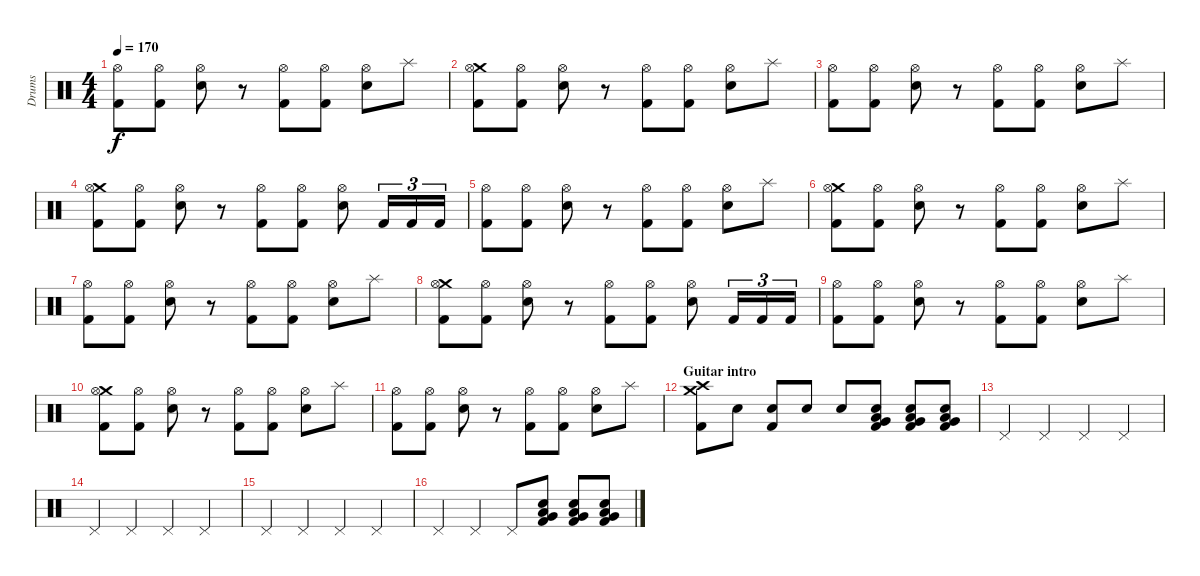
\track ("Drums" "Drums") {instrument percussion}
\staff {score}
\articulation defaults
\ts (4 4)
\tempo 170
\clef neutral
\ks c
("Hi-Hat (open)" "Kick (hit) 2").8{dy f} ("Hi-Hat (open)" "Kick (hit) 2").8 ("Hi-Hat (open)" "Snare (hit) 2").8 r.8 ("Hi-Hat (open)" "Kick (hit) 2").8 ("Hi-Hat (open)" "Kick (hit) 2").8 ("Hi-Hat (open)" "Snare (hit) 2").8 "Splash (hit)".8 |
("Crash medium (hit)" "Hi-Hat (open)" "Kick (hit) 2").8 ("Hi-Hat (open)" "Kick (hit) 2").8 ("Hi-Hat (open)" "Snare (hit) 2").8 r.8 ("Hi-Hat (open)" "Kick (hit) 2").8 ("Hi-Hat (open)" "Kick (hit) 2").8 ("Hi-Hat (open)" "Snare (hit) 2").8 "Splash (hit)".8 |
("Hi-Hat (open)" "Kick (hit) 2").8 ("Hi-Hat (open)" "Kick (hit) 2").8 ("Hi-Hat (open)" "Snare (hit) 2").8 r.8 ("Hi-Hat (open)" "Kick (hit) 2").8 ("Hi-Hat (open)" "Kick (hit) 2").8 ("Hi-Hat (open)" "Snare (hit) 2").8 "Splash (hit)".8 |
("Crash medium (hit)" "Hi-Hat (open)" "Kick (hit) 2").8 ("Hi-Hat (open)" "Kick (hit) 2").8 ("Hi-Hat (open)" "Snare (hit) 2").8 r.8 ("Hi-Hat (open)" "Kick (hit) 2").8 ("Hi-Hat (open)" "Kick (hit) 2").8 ("Hi-Hat (open)" "Snare (hit) 2").8 "Kick (hit) 2".16{tu (3 2)} "Kick (hit) 2".16{tu (3 2)} "Kick (hit) 2".16{tu (3 2)} |
("Hi-Hat (open)" "Kick (hit) 2").8 ("Hi-Hat (open)" "Kick (hit) 2").8 ("Hi-Hat (open)" "Snare (hit) 2").8 r.8 ("Hi-Hat (open)" "Kick (hit) 2").8 ("Hi-Hat (open)" "Kick (hit) 2").8 ("Hi-Hat (open)" "Snare (hit) 2").8 "Splash (hit)".8 |
("Crash medium (hit)" "Hi-Hat (open)" "Kick (hit) 2").8 ("Hi-Hat (open)" "Kick (hit) 2").8 ("Hi-Hat (open)" "Snare (hit) 2").8 r.8 ("Hi-Hat (open)" "Kick (hit) 2").8 ("Hi-Hat (open)" "Kick (hit) 2").8 ("Hi-Hat (open)" "Snare (hit) 2").8 "Splash (hit)".8 |
("Hi-Hat (open)" "Kick (hit) 2").8 ("Hi-Hat (open)" "Kick (hit) 2").8 ("Hi-Hat (open)" "Snare (hit) 2").8 r.8 ("Hi-Hat (open)" "Kick (hit) 2").8 ("Hi-Hat (open)" "Kick (hit) 2").8 ("Hi-Hat (open)" "Snare (hit) 2").8 "Splash (hit)".8 |
("Crash medium (hit)" "Hi-Hat (open)" "Kick (hit) 2").8 ("Hi-Hat (open)" "Kick (hit) 2").8 ("Hi-Hat (open)" "Snare (hit) 2").8 r.8 ("Hi-Hat (open)" "Kick (hit) 2").8 ("Hi-Hat (open)" "Kick (hit) 2").8 ("Hi-Hat (open)" "Snare (hit) 2").8 "Kick (hit) 2".16{tu (3 2)} "Kick (hit) 2".16{tu (3 2)} "Kick (hit) 2".16{tu (3 2)} |
("Hi-Hat (open)" "Kick (hit) 2").8 ("Hi-Hat (open)" "Kick (hit) 2").8 ("Hi-Hat (open)" "Snare (hit) 2").8 r.8 ("Hi-Hat (open)" "Kick (hit) 2").8 ("Hi-Hat (open)" "Kick (hit) 2").8 ("Hi-Hat (open)" "Snare (hit) 2").8 "Splash (hit)".8 |
("Crash medium (hit)" "Hi-Hat (open)" "Kick (hit) 2").8 ("Hi-Hat (open)" "Kick (hit) 2").8 ("Hi-Hat (open)" "Snare (hit) 2").8 r.8 ("Hi-Hat (open)" "Kick (hit) 2").8 ("Hi-Hat (open)" "Kick (hit) 2").8 ("Hi-Hat (open)" "Snare (hit) 2").8 "Splash (hit)".8 |
("Hi-Hat (open)" "Kick (hit) 2").8 ("Hi-Hat (open)" "Kick (hit) 2").8 ("Hi-Hat (open)" "Snare (hit) 2").8 r.8 ("Hi-Hat (open)" "Kick (hit) 2").8 ("Hi-Hat (open)" "Kick (hit) 2").8 ("Hi-Hat (open)" "Snare (hit) 2").8 "Splash (hit)".8 |
\section ("" "Guitar intro")
("Crash medium (hit)" "Crash high (hit)" "Kick (hit) 2").8 "Snare (hit) 2".8 ("Snare (hit) 2" "Kick (hit) 2").8 "Snare (hit) 2".8 "Snare (hit) 2".8 ("Very Low Tom (hit)" "Low Tom (hit)" "Snare (hit) 2" "Kick (hit) 2").8 ("Very Low Tom (hit)" "Low Tom (hit)" "Snare (hit) 2" "Kick (hit) 2").8 ("Very Low Tom (hit)" "Low Tom (hit)" "Snare (hit) 2" "Kick (hit) 2").8 |
"Pedal Hi-Hat (hit)".4 "Pedal Hi-Hat (hit)".4 "Pedal Hi-Hat (hit)".4 "Pedal Hi-Hat (hit)".4 |
"Pedal Hi-Hat (hit)".4 "Pedal Hi-Hat (hit)".4 "Pedal Hi-Hat (hit)".4 "Pedal Hi-Hat (hit)".4 |
"Pedal Hi-Hat (hit)".4 "Pedal Hi-Hat (hit)".4 "Pedal Hi-Hat (hit)".4 "Pedal Hi-Hat (hit)".4 |
"Pedal Hi-Hat (hit)".4 "Pedal Hi-Hat (hit)".4 "Pedal Hi-Hat (hit)".8 ("Very Low Tom (hit)" "Low Tom (hit)" "Snare (hit) 2" "Kick (hit) 2").8 ("Very Low Tom (hit)" "Low Tom (hit)" "Snare (hit) 2" "Kick (hit) 2").8 ("Very Low Tom (hit)" "Low Tom (hit)" "Snare (hit) 2" "Kick (hit) 2").8
